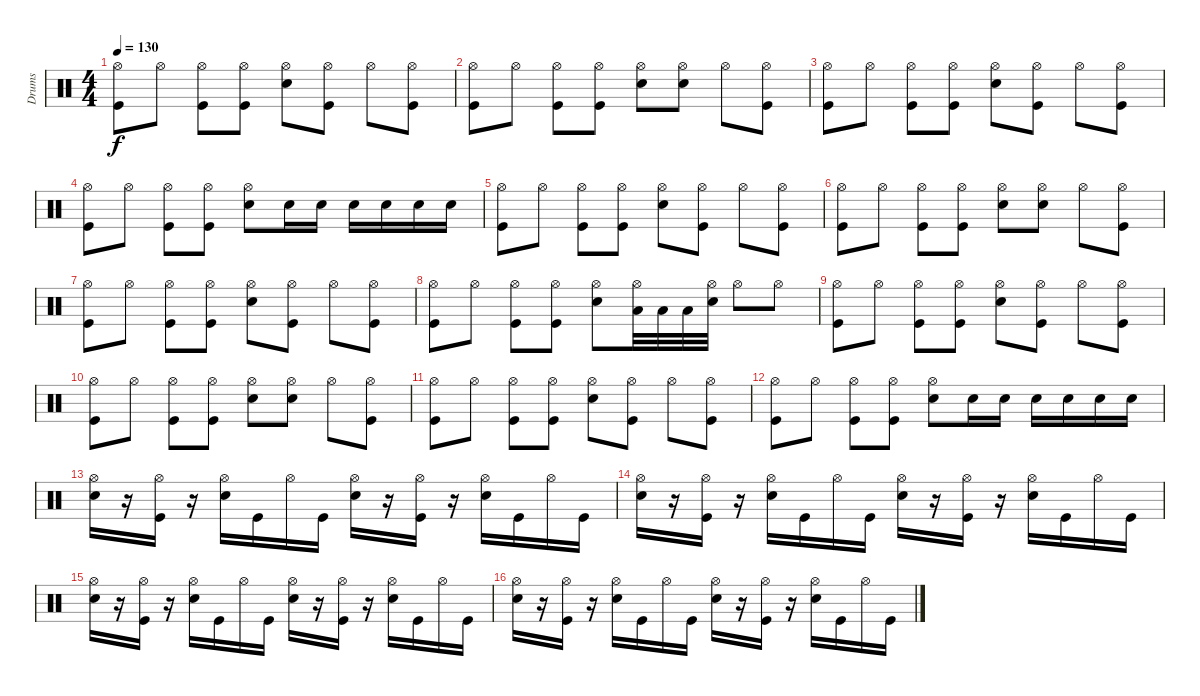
\track ("Drums" "Drums") {instrument percussion}
\staff {score}
\articulation defaults
\ts (4 4)
\tempo 130
\clef neutral
\ks c
("Hi-Hat (open)" "Kick (hit)").8{dy f} "Hi-Hat (open)".8 ("Hi-Hat (open)" "Kick (hit)").8 ("Hi-Hat (open)" "Kick (hit)").8 ("Hi-Hat (open)" "Snare (hit) 2").8 ("Hi-Hat (open)" "Kick (hit)").8 "Hi-Hat (open)".8 ("Hi-Hat (open)" "Kick (hit)").8 |
("Hi-Hat (open)" "Kick (hit)").8 "Hi-Hat (open)".8 ("Hi-Hat (open)" "Kick (hit)").8 ("Hi-Hat (open)" "Kick (hit)").8 ("Hi-Hat (open)" "Snare (hit) 2").8 ("Hi-Hat (open)" "Snare (hit) 2").8 "Hi-Hat (open)".8 ("Hi-Hat (open)" "Kick (hit)").8 |
("Hi-Hat (open)" "Kick (hit)").8 "Hi-Hat (open)".8 ("Hi-Hat (open)" "Kick (hit)").8 ("Hi-Hat (open)" "Kick (hit)").8 ("Hi-Hat (open)" "Snare (hit) 2").8 ("Hi-Hat (open)" "Kick (hit)").8 "Hi-Hat (open)".8 ("Hi-Hat (open)" "Kick (hit)").8 |
("Hi-Hat (open)" "Kick (hit)").8 "Hi-Hat (open)".8 ("Hi-Hat (open)" "Kick (hit)").8 ("Hi-Hat (open)" "Kick (hit)").8 ("Hi-Hat (open)" "Snare (hit) 2").8 "Snare (hit) 2".16 "Snare (hit) 2".16 "Snare (hit) 2".16 "Snare (hit) 2".16 "Snare (hit) 2".16 "Snare (hit) 2".16 |
("Hi-Hat (open)" "Kick (hit)").8 "Hi-Hat (open)".8 ("Hi-Hat (open)" "Kick (hit)").8 ("Hi-Hat (open)" "Kick (hit)").8 ("Hi-Hat (open)" "Snare (hit) 2").8 ("Hi-Hat (open)" "Kick (hit)").8 "Hi-Hat (open)".8 ("Hi-Hat (open)" "Kick (hit)").8 |
("Hi-Hat (open)" "Kick (hit)").8 "Hi-Hat (open)".8 ("Hi-Hat (open)" "Kick (hit)").8 ("Hi-Hat (open)" "Kick (hit)").8 ("Hi-Hat (open)" "Snare (hit) 2").8 ("Hi-Hat (open)" "Snare (hit) 2").8 "Hi-Hat (open)".8 ("Hi-Hat (open)" "Kick (hit)").8 |
("Hi-Hat (open)" "Kick (hit)").8 "Hi-Hat (open)".8 ("Hi-Hat (open)" "Kick (hit)").8 ("Hi-Hat (open)" "Kick (hit)").8 ("Hi-Hat (open)" "Snare (hit) 2").8 ("Hi-Hat (open)" "Kick (hit)").8 "Hi-Hat (open)".8 ("Hi-Hat (open)" "Kick (hit)").8 |
("Hi-Hat (open)" "Kick (hit)").8 "Hi-Hat (open)".8 ("Hi-Hat (open)" "Kick (hit)").8 ("Hi-Hat (open)" "Kick (hit)").8 ("Hi-Hat (open)" "Snare (hit) 2").8 ("Hi-Hat (open)" "Low Floor Tom (hit)").32 "Low Floor Tom (hit)".32 "Low Floor Tom (hit)".32 ("Hi-Hat (open)" "Snare (hit) 2").32 "Hi-Hat (open)".8 "Hi-Hat (open)".8 |
("Hi-Hat (open)" "Kick (hit)").8 "Hi-Hat (open)".8 ("Hi-Hat (open)" "Kick (hit)").8 ("Hi-Hat (open)" "Kick (hit)").8 ("Hi-Hat (open)" "Snare (hit) 2").8 ("Hi-Hat (open)" "Kick (hit)").8 "Hi-Hat (open)".8 ("Hi-Hat (open)" "Kick (hit)").8 |
("Hi-Hat (open)" "Kick (hit)").8 "Hi-Hat (open)".8 ("Hi-Hat (open)" "Kick (hit)").8 ("Hi-Hat (open)" "Kick (hit)").8 ("Hi-Hat (open)" "Snare (hit) 2").8 ("Hi-Hat (open)" "Snare (hit) 2").8 "Hi-Hat (open)".8 ("Hi-Hat (open)" "Kick (hit)").8 |
("Hi-Hat (open)" "Kick (hit)").8 "Hi-Hat (open)".8 ("Hi-Hat (open)" "Kick (hit)").8 ("Hi-Hat (open)" "Kick (hit)").8 ("Hi-Hat (open)" "Snare (hit) 2").8 ("Hi-Hat (open)" "Kick (hit)").8 "Hi-Hat (open)".8 ("Hi-Hat (open)" "Kick (hit)").8 |
("Hi-Hat (open)" "Kick (hit)").8 "Hi-Hat (open)".8 ("Hi-Hat (open)" "Kick (hit)").8 ("Hi-Hat (open)" "Kick (hit)").8 ("Hi-Hat (open)" "Snare (hit) 2").8 "Snare (hit) 2".16 "Snare (hit) 2".16 "Snare (hit) 2".16 "Snare (hit) 2".16 "Snare (hit) 2".16 "Snare (hit) 2".16 |
("Hi-Hat (open)" "Snare (hit) 2").16 r.16 ("Hi-Hat (open)" "Kick (hit)").16 r.16 ("Hi-Hat (open)" "Snare (hit) 2").16 "Kick (hit)".16 "Hi-Hat (open)".16 "Kick (hit)".16 ("Hi-Hat (open)" "Snare (hit) 2").16 r.16 ("Hi-Hat (open)" "Kick (hit)").16 r.16 ("Hi-Hat (open)" "Snare (hit) 2").16 "Kick (hit)".16 "Hi-Hat (open)".16 "Kick (hit)".16 |
("Hi-Hat (open)" "Snare (hit) 2").16 r.16 ("Hi-Hat (open)" "Kick (hit)").16 r.16 ("Hi-Hat (open)" "Snare (hit) 2").16 "Kick (hit)".16 "Hi-Hat (open)".16 "Kick (hit)".16 ("Hi-Hat (open)" "Snare (hit) 2").16 r.16 ("Hi-Hat (open)" "Kick (hit)").16 r.16 ("Hi-Hat (open)" "Snare (hit) 2").16 "Kick (hit)".16 "Hi-Hat (open)".16 "Kick (hit)".16 |
("Hi-Hat (open)" "Snare (hit) 2").16 r.16 ("Hi-Hat (open)" "Kick (hit)").16 r.16 ("Hi-Hat (open)" "Snare (hit) 2").16 "Kick (hit)".16 "Hi-Hat (open)".16 "Kick (hit)".16 ("Hi-Hat (open)" "Snare (hit) 2").16 r.16 ("Hi-Hat (open)" "Kick (hit)").16 r.16 ("Hi-Hat (open)" "Snare (hit) 2").16 "Kick (hit)".16 "Hi-Hat (open)".16 "Kick (hit)".16 |
("Hi-Hat (open)" "Snare (hit) 2").16 r.16 ("Hi-Hat (open)" "Kick (hit)").16 r.16 ("Hi-Hat (open)" "Snare (hit) 2").16 "Kick (hit)".16 "Hi-Hat (open)".16 "Kick (hit)".16 ("Hi-Hat (open)" "Snare (hit) 2").16 r.16 ("Hi-Hat (open)" "Kick (hit)").16 r.16 ("Hi-Hat (open)" "Snare (hit) 2").16 "Kick (hit)".16 "Hi-Hat (open)".16 "Kick (hit)".16
